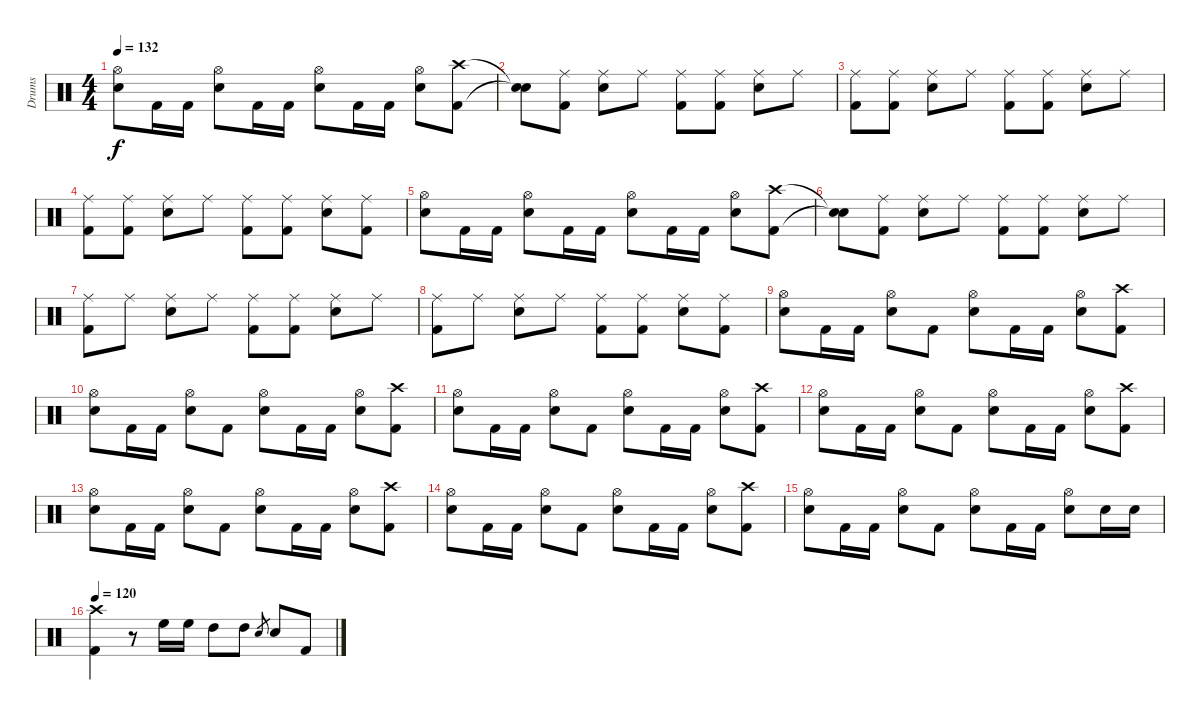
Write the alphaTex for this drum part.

\track ("Drums" "Drums") {instrument percussion}
\staff {score}
\articulation defaults
\ts (4 4)
\tempo 132
\clef neutral
\ks c
("Hi-Hat (open)" "Electric Snare (hit)").8{dy f} "Kick (hit) 2".16 "Kick (hit) 2".16 ("Hi-Hat (open)" "Electric Snare (hit)").8 "Kick (hit) 2".16 "Kick (hit) 2".16 ("Hi-Hat (open)" "Electric Snare (hit)").8 "Kick (hit) 2".16 "Kick (hit) 2".16 ("Hi-Hat (open)" "Electric Snare (hit)").8 ("Crash high (hit)" "Kick (hit) 2").8 |
("Snare (hit)"{t} "Snare (hit)"{t}).8 ("Ride (middle)" "Kick (hit) 2").8 ("Ride (middle)" "Electric Snare (hit)").8 "Ride (middle)".8 ("Ride (middle)" "Kick (hit) 2").8 ("Ride (middle)" "Kick (hit) 2").8 ("Ride (middle)" "Electric Snare (hit)").8 "Ride (middle)".8 |
("Ride (middle)" "Kick (hit) 2").8 ("Ride (middle)" "Kick (hit) 2").8 ("Ride (middle)" "Electric Snare (hit)").8 "Ride (middle)".8 ("Ride (middle)" "Kick (hit) 2").8 ("Ride (middle)" "Kick (hit) 2").8 ("Ride (middle)" "Electric Snare (hit)").8 "Ride (middle)".8 |
("Ride (middle)" "Kick (hit) 2").8 ("Ride (middle)" "Kick (hit) 2").8 ("Ride (middle)" "Electric Snare (hit)").8 "Ride (middle)".8 ("Ride (middle)" "Kick (hit) 2").8 ("Ride (middle)" "Kick (hit) 2").8 ("Ride (middle)" "Electric Snare (hit)").8 ("Ride (middle)" "Kick (hit) 2").8 |
("Hi-Hat (open)" "Electric Snare (hit)").8 "Kick (hit) 2".16 "Kick (hit) 2".16 ("Hi-Hat (open)" "Electric Snare (hit)").8 "Kick (hit) 2".16 "Kick (hit) 2".16 ("Hi-Hat (open)" "Electric Snare (hit)").8 "Kick (hit) 2".16 "Kick (hit) 2".16 ("Hi-Hat (open)" "Electric Snare (hit)").8 ("Crash high (hit)" "Kick (hit) 2").8 |
("Snare (hit)"{t} "Snare (hit)"{t}).8 ("Ride (middle)" "Kick (hit) 2").8 ("Ride (middle)" "Electric Snare (hit)").8 "Ride (middle)".8 ("Ride (middle)" "Kick (hit) 2").8 ("Ride (middle)" "Kick (hit) 2").8 ("Ride (middle)" "Electric Snare (hit)").8 "Ride (middle)".8 |
("Ride (middle)" "Kick (hit) 2").8 "Ride (middle)".8 ("Ride (middle)" "Electric Snare (hit)").8 "Ride (middle)".8 ("Ride (middle)" "Kick (hit) 2").8 ("Ride (middle)" "Kick (hit) 2").8 ("Ride (middle)" "Electric Snare (hit)").8 "Ride (middle)".8 |
("Ride (middle)" "Kick (hit) 2").8 "Ride (middle)".8 ("Ride (middle)" "Electric Snare (hit)").8 "Ride (middle)".8 ("Ride (middle)" "Kick (hit) 2").8 ("Ride (middle)" "Kick (hit) 2").8 ("Ride (middle)" "Electric Snare (hit)").8 ("Ride (middle)" "Kick (hit) 2").8 |
("Hi-Hat (open)" "Electric Snare (hit)").8 "Kick (hit) 2".16 "Kick (hit) 2".16 ("Hi-Hat (open)" "Electric Snare (hit)").8 "Kick (hit) 2".8 ("Hi-Hat (open)" "Electric Snare (hit)").8 "Kick (hit) 2".16 "Kick (hit) 2".16 ("Hi-Hat (open)" "Electric Snare (hit)").8 ("Crash high (hit)" "Kick (hit) 2").8 |
("Hi-Hat (open)" "Electric Snare (hit)").8 "Kick (hit) 2".16 "Kick (hit) 2".16 ("Hi-Hat (open)" "Electric Snare (hit)").8 "Kick (hit) 2".8 ("Hi-Hat (open)" "Electric Snare (hit)").8 "Kick (hit) 2".16 "Kick (hit) 2".16 ("Hi-Hat (open)" "Electric Snare (hit)").8 ("Crash high (hit)" "Kick (hit) 2").8 |
("Hi-Hat (open)" "Electric Snare (hit)").8 "Kick (hit) 2".16 "Kick (hit) 2".16 ("Hi-Hat (open)" "Electric Snare (hit)").8 "Kick (hit) 2".8 ("Hi-Hat (open)" "Electric Snare (hit)").8 "Kick (hit) 2".16 "Kick (hit) 2".16 ("Hi-Hat (open)" "Electric Snare (hit)").8 ("Crash high (hit)" "Kick (hit) 2").8 |
("Hi-Hat (open)" "Electric Snare (hit)").8 "Kick (hit) 2".16 "Kick (hit) 2".16 ("Hi-Hat (open)" "Electric Snare (hit)").8 "Kick (hit) 2".8 ("Hi-Hat (open)" "Electric Snare (hit)").8 "Kick (hit) 2".16 "Kick (hit) 2".16 ("Hi-Hat (open)" "Electric Snare (hit)").8 ("Crash high (hit)" "Kick (hit) 2").8 |
("Hi-Hat (open)" "Electric Snare (hit)").8 "Kick (hit) 2".16 "Kick (hit) 2".16 ("Hi-Hat (open)" "Electric Snare (hit)").8 "Kick (hit) 2".8 ("Hi-Hat (open)" "Electric Snare (hit)").8 "Kick (hit) 2".16 "Kick (hit) 2".16 ("Hi-Hat (open)" "Electric Snare (hit)").8 ("Crash high (hit)" "Kick (hit) 2").8 |
("Hi-Hat (open)" "Electric Snare (hit)").8 "Kick (hit) 2".16 "Kick (hit) 2".16 ("Hi-Hat (open)" "Electric Snare (hit)").8 "Kick (hit) 2".8 ("Hi-Hat (open)" "Electric Snare (hit)").8 "Kick (hit) 2".16 "Kick (hit) 2".16 ("Hi-Hat (open)" "Electric Snare (hit)").8 ("Crash high (hit)" "Kick (hit) 2").8 |
("Hi-Hat (open)" "Electric Snare (hit)").8 "Kick (hit) 2".16 "Kick (hit) 2".16 ("Hi-Hat (open)" "Electric Snare (hit)").8 "Kick (hit) 2".8 ("Hi-Hat (open)" "Electric Snare (hit)").8 "Kick (hit) 2".16 "Kick (hit) 2".16 ("Hi-Hat (open)" "Electric Snare (hit)").8 "Electric Snare (hit)".16 "Electric Snare (hit)".16 |
\tempo 120
("Crash high (hit)" "Kick (hit) 2").4 r.8 "High Floor Tom (hit)".16 "High Floor Tom (hit)".16 "High Tom (hit)".8 "High Tom (hit)".8 "Electric Snare (hit)".8{gr} "Electric Snare (hit)".8 "Kick (hit) 2".8
